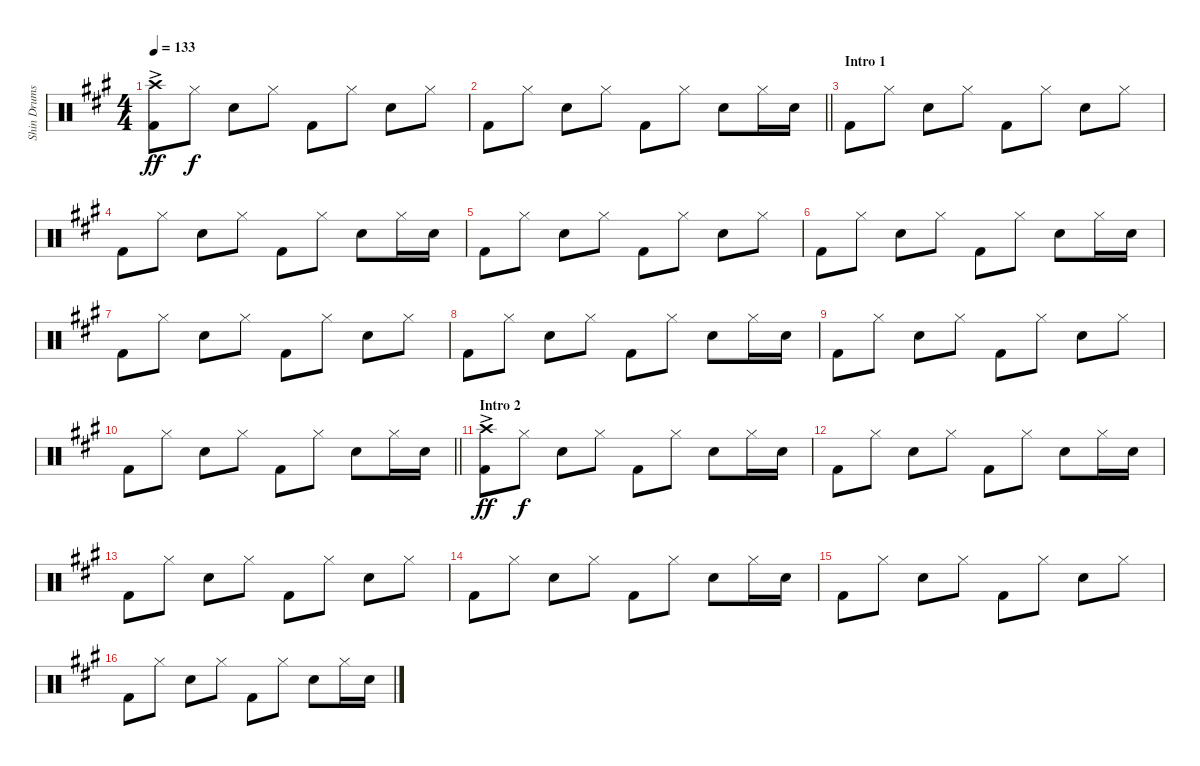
\track ("Shin Drums" "Shin Drums") {instrument percussion}
\staff {score}
\articulation defaults
\ts (4 4)
\tempo 133
\clef neutral
\ks a
("Crash high (hit)"{ac} "Kick (hit) 2").8{dy ff} "Hi-Hat (closed)".8{dy f} "Snare (hit) 2".8 "Hi-Hat (closed)".8 "Kick (hit) 2".8 "Hi-Hat (closed)".8 "Snare (hit) 2".8 "Hi-Hat (closed)".8 |
\barLineRight lightlight "Kick (hit) 2".8 "Hi-Hat (closed)".8 "Snare (hit) 2".8 "Hi-Hat (closed)".8 "Kick (hit) 2".8 "Hi-Hat (closed)".8 "Snare (hit) 2".8 "Hi-Hat (closed)".16 "Snare (hit) 2".16
|
\section ("" "Intro 1")
"Kick (hit) 2".8 "Hi-Hat (closed)".8 "Snare (hit) 2".8 "Hi-Hat (closed)".8 "Kick (hit) 2".8 "Hi-Hat (closed)".8 "Snare (hit) 2".8 "Hi-Hat (closed)".8 |
"Kick (hit) 2".8 "Hi-Hat (closed)".8 "Snare (hit) 2".8 "Hi-Hat (closed)".8 "Kick (hit) 2".8 "Hi-Hat (closed)".8 "Snare (hit) 2".8 "Hi-Hat (closed)".16 "Snare (hit) 2".16 |
"Kick (hit) 2".8 "Hi-Hat (closed)".8 "Snare (hit) 2".8 "Hi-Hat (closed)".8 "Kick (hit) 2".8 "Hi-Hat (closed)".8 "Snare (hit) 2".8 "Hi-Hat (closed)".8 |
"Kick (hit) 2".8 "Hi-Hat (closed)".8 "Snare (hit) 2".8 "Hi-Hat (closed)".8 "Kick (hit) 2".8 "Hi-Hat (closed)".8 "Snare (hit) 2".8 "Hi-Hat (closed)".16 "Snare (hit) 2".16 |
"Kick (hit) 2".8 "Hi-Hat (closed)".8 "Snare (hit) 2".8 "Hi-Hat (closed)".8 "Kick (hit) 2".8 "Hi-Hat (closed)".8 "Snare (hit) 2".8 "Hi-Hat (closed)".8 |
"Kick (hit) 2".8 "Hi-Hat (closed)".8 "Snare (hit) 2".8 "Hi-Hat (closed)".8 "Kick (hit) 2".8 "Hi-Hat (closed)".8 "Snare (hit) 2".8 "Hi-Hat (closed)".16 "Snare (hit) 2".16 |
"Kick (hit) 2".8 "Hi-Hat (closed)".8 "Snare (hit) 2".8 "Hi-Hat (closed)".8 "Kick (hit) 2".8 "Hi-Hat (closed)".8 "Snare (hit) 2".8 "Hi-Hat (closed)".8 |
\barLineRight lightlight "Kick (hit) 2".8 "Hi-Hat (closed)".8 "Snare (hit) 2".8 "Hi-Hat (closed)".8 "Kick (hit) 2".8 "Hi-Hat (closed)".8 "Snare (hit) 2".8 "Hi-Hat (closed)".16 "Snare (hit) 2".16
|
\section ("" "Intro 2")
("Crash high (hit)"{ac} "Kick (hit) 2").8{dy ff} "Hi-Hat (closed)".8{dy f} "Snare (hit) 2".8 "Hi-Hat (closed)".8 "Kick (hit) 2".8 "Hi-Hat (closed)".8 "Snare (hit) 2".8 "Hi-Hat (closed)".16 "Snare (hit) 2".16 |
"Kick (hit) 2".8 "Hi-Hat (closed)".8 "Snare (hit) 2".8 "Hi-Hat (closed)".8 "Kick (hit) 2".8 "Hi-Hat (closed)".8 "Snare (hit) 2".8 "Hi-Hat (closed)".16 "Snare (hit) 2".16 |
"Kick (hit) 2".8 "Hi-Hat (closed)".8 "Snare (hit) 2".8 "Hi-Hat (closed)".8 "Kick (hit) 2".8 "Hi-Hat (closed)".8 "Snare (hit) 2".8 "Hi-Hat (closed)".8 |
"Kick (hit) 2".8 "Hi-Hat (closed)".8 "Snare (hit) 2".8 "Hi-Hat (closed)".8 "Kick (hit) 2".8 "Hi-Hat (closed)".8 "Snare (hit) 2".8 "Hi-Hat (closed)".16 "Snare (hit) 2".16 |
"Kick (hit) 2".8 "Hi-Hat (closed)".8 "Snare (hit) 2".8 "Hi-Hat (closed)".8 "Kick (hit) 2".8 "Hi-Hat (closed)".8 "Snare (hit) 2".8 "Hi-Hat (closed)".8 |
"Kick (hit) 2".8 "Hi-Hat (closed)".8 "Snare (hit) 2".8 "Hi-Hat (closed)".8 "Kick (hit) 2".8 "Hi-Hat (closed)".8 "Snare (hit) 2".8 "Hi-Hat (closed)".16 "Snare (hit) 2".16
